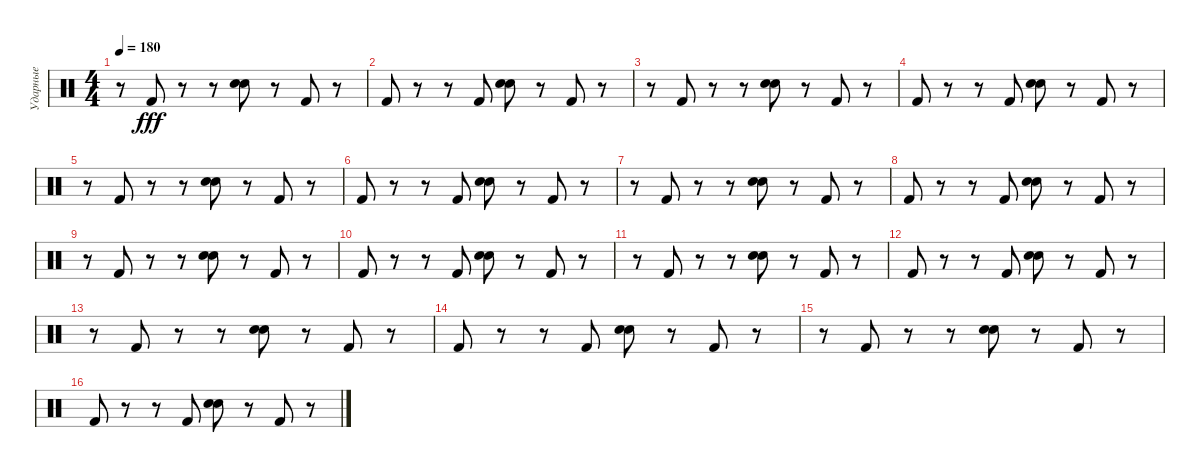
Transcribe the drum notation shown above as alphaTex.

\track ("Ударные" "Ударные") {instrument percussion}
\staff {score}
\articulation defaults
\ts (4 4)
\tempo 180
\clef neutral
\ks c
r.8{dy fff} "Kick (hit) 2".8 r.8 r.8 ("Snare (hit) 2" "Electric Snare (hit)").8 r.8 "Kick (hit) 2".8 r.8 |
"Kick (hit) 2".8 r.8 r.8 "Kick (hit) 2".8 ("Snare (hit) 2" "Electric Snare (hit)").8 r.8 "Kick (hit) 2".8 r.8 |
r.8 "Kick (hit) 2".8 r.8 r.8 ("Snare (hit) 2" "Electric Snare (hit)").8 r.8 "Kick (hit) 2".8 r.8 |
"Kick (hit) 2".8 r.8 r.8 "Kick (hit) 2".8 ("Snare (hit) 2" "Electric Snare (hit)").8 r.8 "Kick (hit) 2".8 r.8 |
r.8 "Kick (hit) 2".8 r.8 r.8 ("Snare (hit) 2" "Electric Snare (hit)").8 r.8 "Kick (hit) 2".8 r.8 |
"Kick (hit) 2".8 r.8 r.8 "Kick (hit) 2".8 ("Snare (hit) 2" "Electric Snare (hit)").8 r.8 "Kick (hit) 2".8 r.8 |
r.8 "Kick (hit) 2".8 r.8 r.8 ("Snare (hit) 2" "Electric Snare (hit)").8 r.8 "Kick (hit) 2".8 r.8 |
"Kick (hit) 2".8 r.8 r.8 "Kick (hit) 2".8 ("Snare (hit) 2" "Electric Snare (hit)").8 r.8 "Kick (hit) 2".8 r.8 |
r.8 "Kick (hit) 2".8 r.8 r.8 ("Snare (hit) 2" "Electric Snare (hit)").8 r.8 "Kick (hit) 2".8 r.8 |
"Kick (hit) 2".8 r.8 r.8 "Kick (hit) 2".8 ("Snare (hit) 2" "Electric Snare (hit)").8 r.8 "Kick (hit) 2".8 r.8 |
r.8 "Kick (hit) 2".8 r.8 r.8 ("Snare (hit) 2" "Electric Snare (hit)").8 r.8 "Kick (hit) 2".8 r.8 |
"Kick (hit) 2".8 r.8 r.8 "Kick (hit) 2".8 ("Snare (hit) 2" "Electric Snare (hit)").8 r.8 "Kick (hit) 2".8 r.8 |
r.8 "Kick (hit) 2".8 r.8 r.8 ("Snare (hit) 2" "Electric Snare (hit)").8 r.8 "Kick (hit) 2".8 r.8 |
"Kick (hit) 2".8 r.8 r.8 "Kick (hit) 2".8 ("Snare (hit) 2" "Electric Snare (hit)").8 r.8 "Kick (hit) 2".8 r.8 |
r.8 "Kick (hit) 2".8 r.8 r.8 ("Snare (hit) 2" "Electric Snare (hit)").8 r.8 "Kick (hit) 2".8 r.8 |
"Kick (hit) 2".8 r.8 r.8 "Kick (hit) 2".8 ("Snare (hit) 2" "Electric Snare (hit)").8 r.8 "Kick (hit) 2".8 r.8
